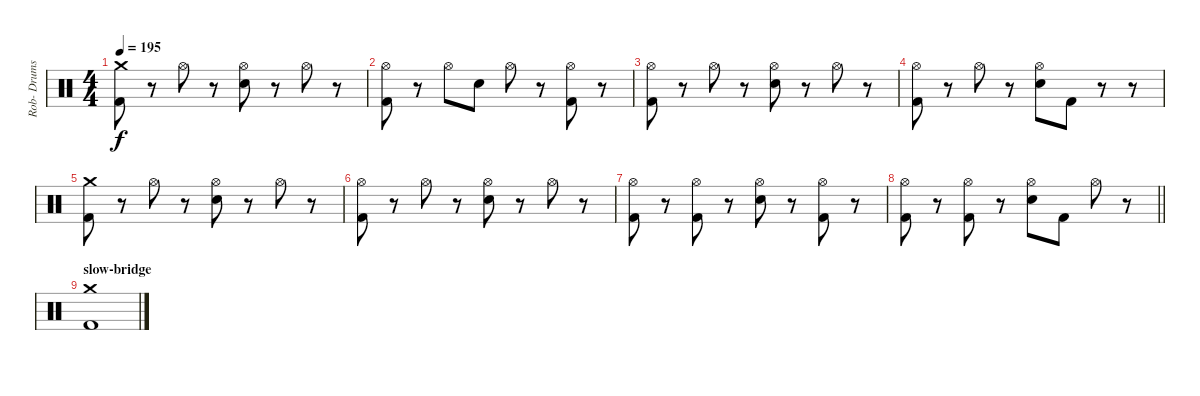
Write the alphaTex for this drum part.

\track ("Rob- Drums" "Rob- Drums") {instrument percussion}
\staff {score}
\articulation defaults
\ts (4 4)
\tempo 195
\clef neutral
\ks c
("Crash medium (hit)" "Kick (hit) 2").8{dy f} r.8 "Hi-Hat (open)".8 r.8 ("Hi-Hat (open)" "Electric Snare (hit)").8 r.8 "Hi-Hat (open)".8 r.8 |
("Hi-Hat (open)" "Kick (hit) 2").8 r.8 "Hi-Hat (open)".8 "Electric Snare (hit)".8 "Hi-Hat (open)".8 r.8 ("Hi-Hat (open)" "Kick (hit) 2").8 r.8 |
("Hi-Hat (open)" "Kick (hit) 2").8 r.8 "Hi-Hat (open)".8 r.8 ("Hi-Hat (open)" "Electric Snare (hit)").8 r.8 "Hi-Hat (open)".8 r.8 |
("Hi-Hat (open)" "Kick (hit) 2").8 r.8 "Hi-Hat (open)".8 r.8 ("Hi-Hat (open)" "Electric Snare (hit)").8 "Kick (hit) 2".8 r.8 r.8 |
("Crash medium (hit)" "Kick (hit) 2").8 r.8 "Hi-Hat (open)".8 r.8 ("Hi-Hat (open)" "Electric Snare (hit)").8 r.8 "Hi-Hat (open)".8 r.8 |
("Hi-Hat (open)" "Kick (hit) 2").8 r.8 "Hi-Hat (open)".8 r.8 ("Hi-Hat (open)" "Electric Snare (hit)").8 r.8 "Hi-Hat (open)".8 r.8 |
("Hi-Hat (open)" "Kick (hit) 2").8 r.8 ("Hi-Hat (open)" "Kick (hit) 2").8 r.8 ("Hi-Hat (open)" "Electric Snare (hit)").8 r.8 ("Hi-Hat (open)" "Kick (hit) 2").8 r.8 |
\barLineRight lightlight
("Hi-Hat (open)" "Kick (hit) 2").8 r.8 ("Hi-Hat (open)" "Kick (hit) 2").8 r.8 ("Hi-Hat (open)" "Electric Snare (hit)").8 "Kick (hit) 2".8 "Hi-Hat (open)".8 r.8 |
\section ("" "slow-bridge")
("Crash medium (hit)" "Kick (hit) 2").1
